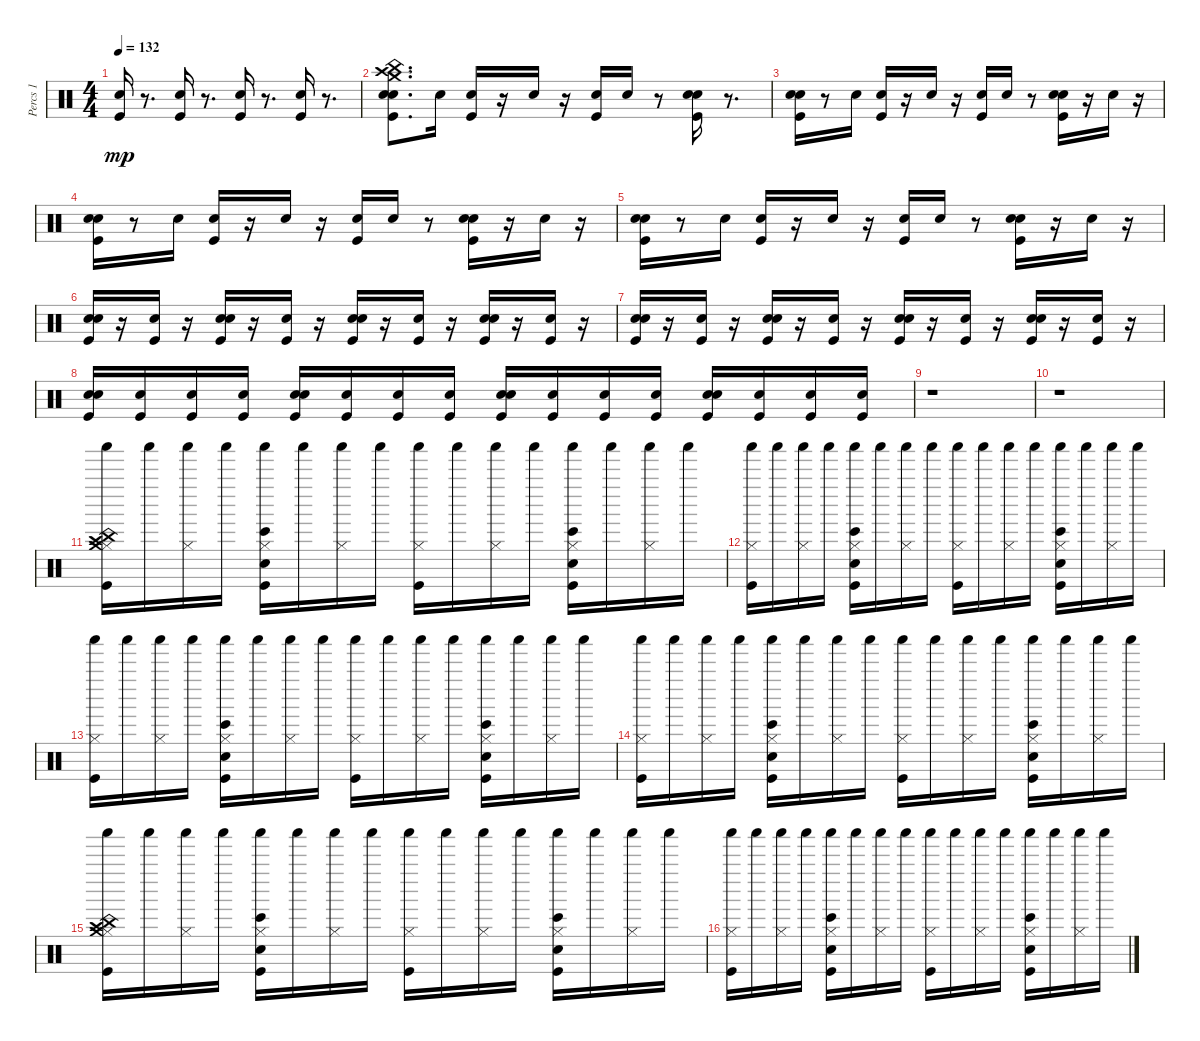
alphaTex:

\track ("Percs 1" "Percs 1") {instrument percussion}
\staff {score}
\articulation defaults
\ts (4 4)
\tempo 132
\clef neutral
\ks c
("Hand Clap (hit)" "Kick (hit)").16{dy mp} r.8{d} ("Hand Clap (hit)" "Kick (hit)").16 r.8{d} ("Hand Clap (hit)" "Kick (hit)").16 r.8{d} ("Hand Clap (hit)" "Kick (hit)").16 r.8{d} |
("Hand Clap (hit)" "Kick (hit)" "Electric Snare (hit)" "Crash high (hit)" "China (hit)" "Crash medium (hit)").8{d} "Electric Snare (hit)".16 ("Kick (hit)" "Hand Clap (hit)").16 r.16 "Electric Snare (hit)".16 r.16 ("Kick (hit)" "Hand Clap (hit)").16 "Electric Snare (hit)".16 r.8 ("Hand Clap (hit)" "Kick (hit)" "Electric Snare (hit)").16 r.8{d} |
("Hand Clap (hit)" "Kick (hit)" "Electric Snare (hit)").16 r.8 "Electric Snare (hit)".16 ("Kick (hit)" "Hand Clap (hit)").16 r.16 "Electric Snare (hit)".16 r.16 ("Kick (hit)" "Hand Clap (hit)").16 "Electric Snare (hit)".16 r.8 ("Hand Clap (hit)" "Kick (hit)" "Electric Snare (hit)").16 r.16 "Electric Snare (hit)".16 r.16 |
("Electric Snare (hit)" "Kick (hit)" "Hand Clap (hit)").16 r.8 "Electric Snare (hit)".16 ("Kick (hit)" "Hand Clap (hit)").16 r.16 "Electric Snare (hit)".16 r.16 ("Kick (hit)" "Hand Clap (hit)").16 "Electric Snare (hit)".16 r.8 ("Hand Clap (hit)" "Kick (hit)" "Electric Snare (hit)").16 r.16 "Electric Snare (hit)".16 r.16 |
("Hand Clap (hit)" "Kick (hit)" "Electric Snare (hit)").16 r.8 "Electric Snare (hit)".16 ("Kick (hit)" "Hand Clap (hit)").16 r.16 "Electric Snare (hit)".16 r.16 ("Kick (hit)" "Hand Clap (hit)").16 "Electric Snare (hit)".16 r.8 ("Hand Clap (hit)" "Kick (hit)" "Electric Snare (hit)").16 r.16 "Electric Snare (hit)".16 r.16 |
("Hand Clap (hit)" "Electric Snare (hit)" "Kick (hit)").16 r.16 ("Electric Snare (hit)" "Kick (hit)").16 r.16 ("Hand Clap (hit)" "Kick (hit)" "Electric Snare (hit)").16 r.16 ("Electric Snare (hit)" "Kick (hit)").16 r.16 ("Hand Clap (hit)" "Kick (hit)" "Electric Snare (hit)").16 r.16 ("Electric Snare (hit)" "Kick (hit)").16 r.16 ("Hand Clap (hit)" "Kick (hit)" "Electric Snare (hit)").16 r.16 ("Electric Snare (hit)" "Kick (hit)").16 r.16 |
("Hand Clap (hit)" "Kick (hit)" "Electric Snare (hit)").16 r.16 ("Electric Snare (hit)" "Kick (hit)").16 r.16 ("Hand Clap (hit)" "Kick (hit)" "Electric Snare (hit)").16 r.16 ("Electric Snare (hit)" "Kick (hit)").16 r.16 ("Hand Clap (hit)" "Kick (hit)" "Electric Snare (hit)").16 r.16 ("Electric Snare (hit)" "Kick (hit)").16 r.16 ("Hand Clap (hit)" "Kick (hit)" "Electric Snare (hit)").16 r.16 ("Electric Snare (hit)" "Kick (hit)").16 r.16 |
("Hand Clap (hit)" "Kick (hit)" "Electric Snare (hit)").16 ("Kick (hit)" "Electric Snare (hit)").16 ("Kick (hit)" "Electric Snare (hit)").16 ("Kick (hit)" "Electric Snare (hit)").16 ("Electric Snare (hit)" "Kick (hit)" "Hand Clap (hit)").16 ("Kick (hit)" "Electric Snare (hit)").16 ("Kick (hit)" "Electric Snare (hit)").16 ("Kick (hit)" "Electric Snare (hit)").16 ("Electric Snare (hit)" "Kick (hit)" "Hand Clap (hit)").16 ("Kick (hit)" "Electric Snare (hit)").16 ("Kick (hit)" "Electric Snare (hit)").16 ("Kick (hit)" "Electric Snare (hit)").16 ("Electric Snare (hit)" "Kick (hit)" "Hand Clap (hit)").16 ("Kick (hit)" "Electric Snare (hit)").16 ("Kick (hit)" "Electric Snare (hit)").16 ("Kick (hit)" "Electric Snare (hit)").16 |
r.1 |
r.1 |
("Shaker (hit)" "Kick (hit)" "Hi-Hat (closed)" "Crash high (hit)" "China (hit)" "Crash medium (hit)").16 "Shaker (hit)".16 ("Hi-Hat (closed)" "Shaker (hit)").16 "Shaker (hit)".16 ("Hi-Hat (closed)" "Kick (hit)" "Electric Snare (hit)" "Bongo High (hit)" "Shaker (hit)").16 "Shaker (hit)".16 ("Shaker (hit)" "Hi-Hat (closed)").16 "Shaker (hit)".16 ("Hi-Hat (closed)" "Kick (hit)" "Shaker (hit)").16 "Shaker (hit)".16 ("Hi-Hat (closed)" "Shaker (hit)").16 "Shaker (hit)".16 ("Hi-Hat (closed)" "Electric Snare (hit)" "Shaker (hit)" "Bongo High (hit)" "Kick (hit)").16 "Shaker (hit)".16 ("Hi-Hat (closed)" "Shaker (hit)").16 "Shaker (hit)".16 |
("Shaker (hit)" "Kick (hit)" "Hi-Hat (closed)").16 "Shaker (hit)".16 ("Shaker (hit)" "Hi-Hat (closed)").16 "Shaker (hit)".16 ("Shaker (hit)" "Hi-Hat (closed)" "Electric Snare (hit)" "Kick (hit)" "Bongo High (hit)").16 "Shaker (hit)".16 ("Hi-Hat (closed)" "Shaker (hit)").16 "Shaker (hit)".16 ("Hi-Hat (closed)" "Shaker (hit)" "Kick (hit)").16 "Shaker (hit)".16 ("Hi-Hat (closed)" "Shaker (hit)").16 "Shaker (hit)".16 ("Shaker (hit)" "Bongo High (hit)" "Kick (hit)" "Electric Snare (hit)" "Hi-Hat (closed)").16 "Shaker (hit)".16 ("Shaker (hit)" "Hi-Hat (closed)").16 "Shaker (hit)".16 |
("Hi-Hat (closed)" "Kick (hit)" "Shaker (hit)").16 "Shaker (hit)".16 ("Hi-Hat (closed)" "Shaker (hit)").16 "Shaker (hit)".16 ("Hi-Hat (closed)" "Kick (hit)" "Electric Snare (hit)" "Bongo High (hit)" "Shaker (hit)").16 "Shaker (hit)".16 ("Shaker (hit)" "Hi-Hat (closed)").16 "Shaker (hit)".16 ("Hi-Hat (closed)" "Kick (hit)" "Shaker (hit)").16 "Shaker (hit)".16 ("Hi-Hat (closed)" "Shaker (hit)").16 "Shaker (hit)".16 ("Hi-Hat (closed)" "Electric Snare (hit)" "Shaker (hit)" "Bongo High (hit)" "Kick (hit)").16 "Shaker (hit)".16 ("Hi-Hat (closed)" "Shaker (hit)").16 "Shaker (hit)".16 |
("Shaker (hit)" "Kick (hit)" "Hi-Hat (closed)").16 "Shaker (hit)".16 ("Shaker (hit)" "Hi-Hat (closed)").16 "Shaker (hit)".16 ("Shaker (hit)" "Hi-Hat (closed)" "Electric Snare (hit)" "Kick (hit)" "Bongo High (hit)").16 "Shaker (hit)".16 ("Hi-Hat (closed)" "Shaker (hit)").16 "Shaker (hit)".16 ("Hi-Hat (closed)" "Shaker (hit)" "Kick (hit)").16 "Shaker (hit)".16 ("Hi-Hat (closed)" "Shaker (hit)").16 "Shaker (hit)".16 ("Shaker (hit)" "Bongo High (hit)" "Kick (hit)" "Electric Snare (hit)" "Hi-Hat (closed)").16 "Shaker (hit)".16 ("Shaker (hit)" "Hi-Hat (closed)").16 "Shaker (hit)".16 |
("Shaker (hit)" "Kick (hit)" "Hi-Hat (closed)" "Crash high (hit)" "China (hit)" "Crash medium (hit)").16 "Shaker (hit)".16 ("Hi-Hat (closed)" "Shaker (hit)").16 "Shaker (hit)".16 ("Hi-Hat (closed)" "Kick (hit)" "Electric Snare (hit)" "Bongo High (hit)" "Shaker (hit)").16 "Shaker (hit)".16 ("Shaker (hit)" "Hi-Hat (closed)").16 "Shaker (hit)".16 ("Hi-Hat (closed)" "Kick (hit)" "Shaker (hit)").16 "Shaker (hit)".16 ("Hi-Hat (closed)" "Shaker (hit)").16 "Shaker (hit)".16 ("Hi-Hat (closed)" "Electric Snare (hit)" "Shaker (hit)" "Bongo High (hit)" "Kick (hit)").16 "Shaker (hit)".16 ("Hi-Hat (closed)" "Shaker (hit)").16 "Shaker (hit)".16 |
("Shaker (hit)" "Kick (hit)" "Hi-Hat (closed)").16 "Shaker (hit)".16 ("Shaker (hit)" "Hi-Hat (closed)").16 "Shaker (hit)".16 ("Shaker (hit)" "Hi-Hat (closed)" "Electric Snare (hit)" "Kick (hit)" "Bongo High (hit)").16 "Shaker (hit)".16 ("Hi-Hat (closed)" "Shaker (hit)").16 "Shaker (hit)".16 ("Hi-Hat (closed)" "Shaker (hit)" "Kick (hit)").16 "Shaker (hit)".16 ("Hi-Hat (closed)" "Shaker (hit)").16 "Shaker (hit)".16 ("Shaker (hit)" "Bongo High (hit)" "Kick (hit)" "Electric Snare (hit)" "Hi-Hat (closed)").16 "Shaker (hit)".16 ("Shaker (hit)" "Hi-Hat (closed)").16 "Shaker (hit)".16
